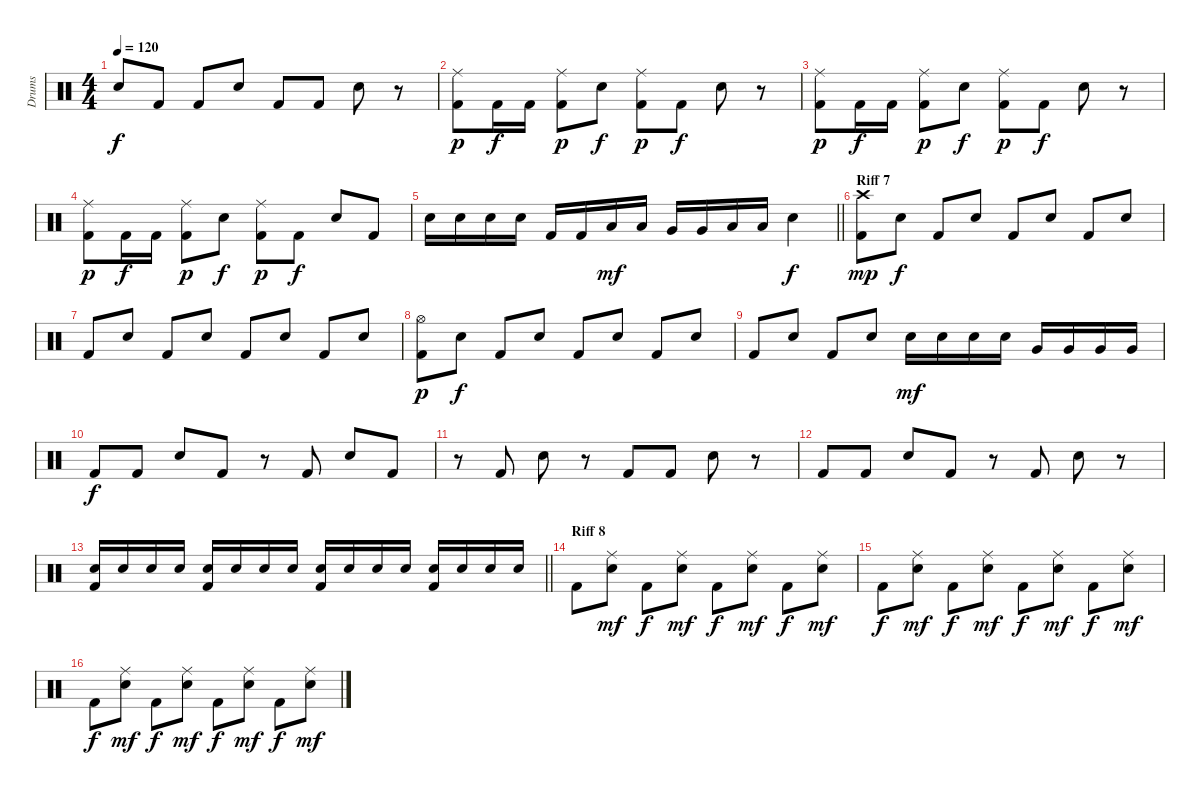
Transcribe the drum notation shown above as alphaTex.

\track ("Drums" "Drums") {instrument percussion}
\staff {score}
\articulation defaults
\ts (4 4)
\tempo 120
\clef neutral
\ks c "Snare (hit) 2".8{dy f} "Kick (hit) 2".8 "Kick (hit) 2".8 "Snare (hit) 2".8 "Kick (hit) 2".8 "Kick (hit) 2".8 "Snare (hit) 2".8
r.8 |
("Kick (hit) 2" "Ride (middle)").8{dy p} "Kick (hit) 2".16{dy f} "Kick (hit) 2".16 ("Kick (hit) 2" "Ride (middle)").8{dy p} "Snare (hit) 2".8{dy f} ("Kick (hit) 2" "Ride (middle)").8{dy p} "Kick (hit) 2".8{dy f} "Snare (hit) 2".8 r.8 |
("Kick (hit) 2" "Ride (middle)").8{dy p} "Kick (hit) 2".16{dy f} "Kick (hit) 2".16 ("Kick (hit) 2" "Ride (middle)").8{dy p} "Snare (hit) 2".8{dy f} ("Kick (hit) 2" "Ride (middle)").8{dy p} "Kick (hit) 2".8{dy f} "Snare (hit) 2".8 r.8 |
("Kick (hit) 2" "Ride (middle)").8{dy p} "Kick (hit) 2".16{dy f} "Kick (hit) 2".16 ("Kick (hit) 2" "Ride (middle)").8{dy p} "Snare (hit) 2".8{dy f} ("Kick (hit) 2" "Ride (middle)").8{dy p} "Kick (hit) 2".8{dy f} "Snare (hit) 2".8 "Kick (hit) 2".8 |
\barLineRight lightlight "Snare (hit) 2".16 "Snare (hit) 2".16 "Snare (hit) 2".16 "Snare (hit) 2".16 "Kick (hit) 2".16 "Kick (hit) 2".16 "Low Tom (hit)".16{dy mf} "Low Tom (hit)".16 "Very Low Tom (hit)".16 "Very Low Tom (hit)".16 "Low Floor Tom (hit)".16 "Low Floor Tom (hit)".16 "Snare (hit) 2".4{dy f}
|
\section ("" "Riff 7")
("Kick (hit) 2" "Crash high (hit)").8{dy mp} "Snare (hit) 2".8{dy f} "Kick (hit) 2".8 "Snare (hit) 2".8 "Kick (hit) 2".8 "Snare (hit) 2".8 "Kick (hit) 2".8 "Snare (hit) 2".8 |
"Kick (hit) 2".8 "Snare (hit) 2".8 "Kick (hit) 2".8 "Snare (hit) 2".8 "Kick (hit) 2".8 "Snare (hit) 2".8 "Kick (hit) 2".8 "Snare (hit) 2".8 |
("Kick (hit) 2" "Hi-Hat (open)").8{dy p} "Snare (hit) 2".8{dy f} "Kick (hit) 2".8 "Snare (hit) 2".8 "Kick (hit) 2".8 "Snare (hit) 2".8 "Kick (hit) 2".8 "Snare (hit) 2".8 |
"Kick (hit) 2".8 "Snare (hit) 2".8 "Kick (hit) 2".8 "Snare (hit) 2".8 "Snare (hit) 2".16{dy mf} "Snare (hit) 2".16 "Snare (hit) 2".16 "Snare (hit) 2".16 "Very Low Tom (hit)".16 "Very Low Tom (hit)".16 "Very Low Tom (hit)".16 "Very Low Tom (hit)".16 |
"Kick (hit) 2".8{dy f} "Kick (hit) 2".8 "Snare (hit) 2".8 "Kick (hit) 2".8 r.8 "Kick (hit) 2".8 "Snare (hit) 2".8 "Kick (hit) 2".8 |
r.8 "Kick (hit) 2".8 "Snare (hit) 2".8 r.8 "Kick (hit) 2".8 "Kick (hit) 2".8 "Snare (hit) 2".8 r.8 |
"Kick (hit) 2".8 "Kick (hit) 2".8 "Snare (hit) 2".8 "Kick (hit) 2".8 r.8 "Kick (hit) 2".8 "Snare (hit) 2".8 r.8 |
\barLineRight lightlight
("Kick (hit) 2" "Snare (hit) 2").16 "Snare (hit) 2".16 "Snare (hit) 2".16 "Snare (hit) 2".16 ("Kick (hit) 2" "Snare (hit) 2").16 "Snare (hit) 2".16 "Snare (hit) 2".16 "Snare (hit) 2".16 ("Kick (hit) 2" "Snare (hit) 2").16 "Snare (hit) 2".16 "Snare (hit) 2".16 "Snare (hit) 2".16 ("Kick (hit) 2" "Snare (hit) 2").16 "Snare (hit) 2".16 "Snare (hit) 2".16 "Snare (hit) 2".16 |
\section ("" "Riff 8")
"Kick (hit) 2".8 ("Ride (middle)" "Snare (hit) 2").8{dy mf} "Kick (hit) 2".8{dy f} ("Ride (middle)" "Snare (hit) 2").8{dy mf} "Kick (hit) 2".8{dy f} ("Ride (middle)" "Snare (hit) 2").8{dy mf} "Kick (hit) 2".8{dy f} ("Ride (middle)" "Snare (hit) 2").8{dy mf} |
"Kick (hit) 2".8{dy f} ("Ride (middle)" "Snare (hit) 2").8{dy mf} "Kick (hit) 2".8{dy f} ("Ride (middle)" "Snare (hit) 2").8{dy mf} "Kick (hit) 2".8{dy f} ("Ride (middle)" "Snare (hit) 2").8{dy mf} "Kick (hit) 2".8{dy f} ("Ride (middle)" "Snare (hit) 2").8{dy mf} |
"Kick (hit) 2".8{dy f} ("Ride (middle)" "Snare (hit) 2").8{dy mf} "Kick (hit) 2".8{dy f} ("Ride (middle)" "Snare (hit) 2").8{dy mf} "Kick (hit) 2".8{dy f} ("Ride (middle)" "Snare (hit) 2").8{dy mf} "Kick (hit) 2".8{dy f} ("Ride (middle)" "Snare (hit) 2").8{dy mf}
